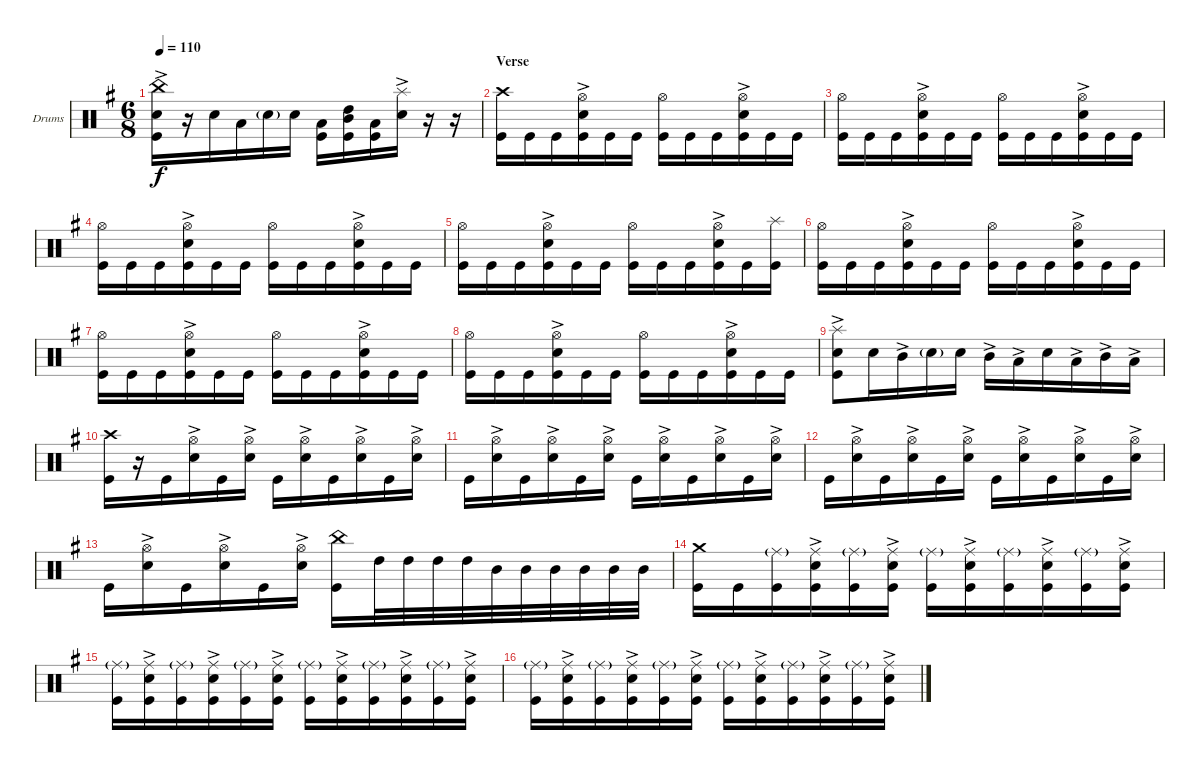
\bracketExtendMode groupsimilarinstruments
\firstSystemTrackNameOrientation horizontal
\otherSystemsTrackNameOrientation horizontal
\track ("Drumkit" "Drums") {instrument percussion}
\staff {score}
\articulation defaults
\ts (6 8)
\tempo 110
\clef neutral
\ks eminor
("Kick (hit)" "Snare (hit) 2"{ac} "China (hit)").16{dy f} r.16 "Snare (hit) 2".16 "Low Tom (hit)".16 "Snare (hit) 2"{g}.16 "Snare (hit) 2".16 ("Low Tom (hit)" "Kick (hit)").16 ("Mid Tom (hit)" "High Tom (hit)" "Kick (hit)").16 ("Low Tom (hit)" "Kick (hit)").16 ("Splash (hit)" "Snare (hit) 2"{ac}).16 r.16 r.16 |
\section ("" "Verse")
("Kick (hit)" "Crash high (hit)").16 "Kick (hit)".16 "Kick (hit)".16 ("Kick (hit)" "Hi-Hat (open)" "Snare (hit) 2"{ac}).16 "Kick (hit)".16 "Kick (hit)".16 ("Kick (hit)" "Hi-Hat (open)").16 "Kick (hit)".16 "Kick (hit)".16 ("Kick (hit)" "Hi-Hat (open)" "Snare (hit) 2"{ac}).16 "Kick (hit)".16 "Kick (hit)".16 |
("Kick (hit)" "Hi-Hat (open)").16 "Kick (hit)".16 "Kick (hit)".16 ("Kick (hit)" "Hi-Hat (open)" "Snare (hit) 2"{ac}).16 "Kick (hit)".16 "Kick (hit)".16 ("Kick (hit)" "Hi-Hat (open)").16 "Kick (hit)".16 "Kick (hit)".16 ("Kick (hit)" "Hi-Hat (open)" "Snare (hit) 2"{ac}).16 "Kick (hit)".16 "Kick (hit)".16 |
("Kick (hit)" "Hi-Hat (open)").16 "Kick (hit)".16 "Kick (hit)".16 ("Kick (hit)" "Hi-Hat (open)" "Snare (hit) 2"{ac}).16 "Kick (hit)".16 "Kick (hit)".16 ("Kick (hit)" "Hi-Hat (open)").16 "Kick (hit)".16 "Kick (hit)".16 ("Kick (hit)" "Hi-Hat (open)" "Snare (hit) 2"{ac}).16 "Kick (hit)".16 "Kick (hit)".16 |
("Kick (hit)" "Hi-Hat (open)").16 "Kick (hit)".16 "Kick (hit)".16 ("Kick (hit)" "Hi-Hat (open)" "Snare (hit) 2"{ac}).16 "Kick (hit)".16 "Kick (hit)".16 ("Kick (hit)" "Hi-Hat (open)").16 "Kick (hit)".16 "Kick (hit)".16 ("Kick (hit)" "Hi-Hat (open)" "Snare (hit) 2"{ac}).16 "Kick (hit)".16 ("Kick (hit)" "Splash (hit)").16 |
("Kick (hit)" "Hi-Hat (open)").16 "Kick (hit)".16 "Kick (hit)".16 ("Kick (hit)" "Hi-Hat (open)" "Snare (hit) 2"{ac}).16 "Kick (hit)".16 "Kick (hit)".16 ("Kick (hit)" "Hi-Hat (open)").16 "Kick (hit)".16 "Kick (hit)".16 ("Kick (hit)" "Hi-Hat (open)" "Snare (hit) 2"{ac}).16 "Kick (hit)".16 "Kick (hit)".16 |
("Kick (hit)" "Hi-Hat (open)").16 "Kick (hit)".16 "Kick (hit)".16 ("Kick (hit)" "Hi-Hat (open)" "Snare (hit) 2"{ac}).16 "Kick (hit)".16 "Kick (hit)".16 ("Kick (hit)" "Hi-Hat (open)").16 "Kick (hit)".16 "Kick (hit)".16 ("Kick (hit)" "Hi-Hat (open)" "Snare (hit) 2"{ac}).16 "Kick (hit)".16 "Kick (hit)".16 |
("Kick (hit)" "Hi-Hat (open)").16 "Kick (hit)".16 "Kick (hit)".16 ("Kick (hit)" "Hi-Hat (open)" "Snare (hit) 2"{ac}).16 "Kick (hit)".16 "Kick (hit)".16 ("Kick (hit)" "Hi-Hat (open)").16 "Kick (hit)".16 "Kick (hit)".16 ("Kick (hit)" "Hi-Hat (open)" "Snare (hit) 2"{ac}).16 "Kick (hit)".16 "Kick (hit)".16 |
("Kick (hit)" "Splash (hit)" "Snare (hit) 2"{ac}).8 "Snare (hit) 2".16 "Mid Tom (hit)"{ac}.16 "Snare (hit) 2"{g}.16 "Snare (hit) 2".16 "Mid Tom (hit)"{ac}.16 "Low Tom (hit)"{ac}.16 "Snare (hit) 2".16 "Low Tom (hit)"{ac}.16 "Mid Tom (hit)"{ac}.16 "Low Tom (hit)"{ac}.16 |
("Kick (hit)" "Crash high (hit)").16 r.16 "Kick (hit)".16 ("Snare (hit) 2"{ac} "Hi-Hat (open)").16 "Kick (hit)".16 ("Snare (hit) 2"{ac} "Hi-Hat (open)").16 "Kick (hit)".16 ("Snare (hit) 2"{ac} "Hi-Hat (open)").16 "Kick (hit)".16 ("Snare (hit) 2"{ac} "Hi-Hat (open)").16 "Kick (hit)".16 ("Snare (hit) 2"{ac} "Hi-Hat (open)").16 |
"Kick (hit)".16 ("Snare (hit) 2"{ac} "Hi-Hat (open)").16 "Kick (hit)".16 ("Snare (hit) 2"{ac} "Hi-Hat (open)").16 "Kick (hit)".16 ("Snare (hit) 2"{ac} "Hi-Hat (open)").16 "Kick (hit)".16 ("Snare (hit) 2"{ac} "Hi-Hat (open)").16 "Kick (hit)".16 ("Snare (hit) 2"{ac} "Hi-Hat (open)").16 "Kick (hit)".16 ("Snare (hit) 2"{ac} "Hi-Hat (open)").16 |
"Kick (hit)".16 ("Snare (hit) 2"{ac} "Hi-Hat (open)").16 "Kick (hit)".16 ("Snare (hit) 2"{ac} "Hi-Hat (open)").16 "Kick (hit)".16 ("Snare (hit) 2"{ac} "Hi-Hat (open)").16 "Kick (hit)".16 ("Snare (hit) 2"{ac} "Hi-Hat (open)").16 "Kick (hit)".16 ("Snare (hit) 2"{ac} "Hi-Hat (open)").16 "Kick (hit)".16 ("Snare (hit) 2"{ac} "Hi-Hat (open)").16 |
"Kick (hit)".16 ("Snare (hit) 2"{ac} "Hi-Hat (open)").16 "Kick (hit)".16 ("Snare (hit) 2"{ac} "Hi-Hat (open)").16 "Kick (hit)".16 ("Snare (hit) 2"{ac} "Hi-Hat (open)").16 ("Kick (hit)" "China (hit)").16 "High Tom (hit)".32 "High Tom (hit)".32 "High Tom (hit)".32 "High Tom (hit)".32 "Mid Tom (hit)".32 "Mid Tom (hit)".32 "Mid Tom (hit)".32 "Mid Tom (hit)".32 "Mid Tom (hit)".32 "Mid Tom (hit)".32 |
("Kick (hit)" "Crash medium (hit)").16 "Kick (hit)".16 ("Kick (hit)" "Ride (middle)"{g}).16 ("Kick (hit)" "Snare (hit) 2"{ac} "Ride (middle)").16 ("Kick (hit)" "Ride (middle)"{g}).16 ("Kick (hit)" "Snare (hit) 2"{ac} "Ride (middle)").16 ("Kick (hit)" "Ride (middle)"{g}).16 ("Kick (hit)" "Snare (hit) 2"{ac} "Ride (middle)").16 ("Kick (hit)" "Ride (middle)"{g}).16 ("Kick (hit)" "Snare (hit) 2"{ac} "Ride (middle)").16 ("Kick (hit)" "Ride (middle)"{g}).16 ("Kick (hit)" "Snare (hit) 2"{ac} "Ride (middle)").16 |
("Kick (hit)" "Ride (middle)"{g}).16 ("Kick (hit)" "Snare (hit) 2"{ac} "Ride (middle)").16 ("Kick (hit)" "Ride (middle)"{g}).16 ("Kick (hit)" "Snare (hit) 2"{ac} "Ride (middle)").16 ("Kick (hit)" "Ride (middle)"{g}).16 ("Kick (hit)" "Snare (hit) 2"{ac} "Ride (middle)").16 ("Kick (hit)" "Ride (middle)"{g}).16 ("Kick (hit)" "Snare (hit) 2"{ac} "Ride (middle)").16 ("Kick (hit)" "Ride (middle)"{g}).16 ("Kick (hit)" "Snare (hit) 2"{ac} "Ride (middle)").16 ("Kick (hit)" "Ride (middle)"{g}).16 ("Kick (hit)" "Snare (hit) 2"{ac} "Ride (middle)").16 |
("Kick (hit)" "Ride (middle)"{g}).16 ("Kick (hit)" "Snare (hit) 2"{ac} "Ride (middle)").16 ("Kick (hit)" "Ride (middle)"{g}).16 ("Kick (hit)" "Snare (hit) 2"{ac} "Ride (middle)").16 ("Kick (hit)" "Ride (middle)"{g}).16 ("Kick (hit)" "Snare (hit) 2"{ac} "Ride (middle)").16 ("Kick (hit)" "Ride (middle)"{g}).16 ("Kick (hit)" "Snare (hit) 2"{ac} "Ride (middle)").16 ("Kick (hit)" "Ride (middle)"{g}).16 ("Kick (hit)" "Snare (hit) 2"{ac} "Ride (middle)").16 ("Kick (hit)" "Ride (middle)"{g}).16 ("Kick (hit)" "Snare (hit) 2"{ac} "Ride (middle)").16
